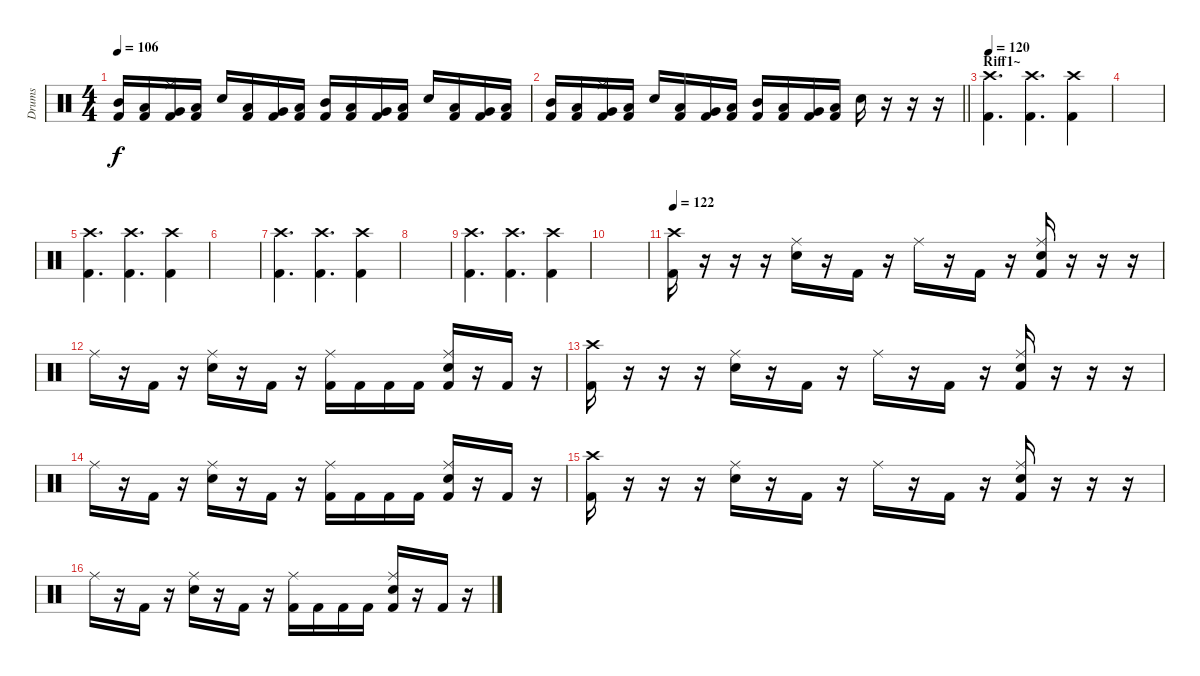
\track ("Drums" "Drums") {instrument percussion}
\staff {score}
\articulation defaults
\ts (4 4)
\tempo 106
\clef neutral
\ks c
("Mid Tom (hit)" "Kick (hit) 2").16{dy f} ("Low Tom (hit)" "Kick (hit) 2").16 ("Ride (middle)" "Very Low Tom (hit)" "Kick (hit) 2").16 ("Low Floor Tom (hit)" "Kick (hit) 2").16 "Snare (hit) 2".16 ("Low Floor Tom (hit)" "Kick (hit) 2").16 ("Very Low Tom (hit)" "Kick (hit) 2").16 ("Low Tom (hit)" "Kick (hit) 2").16 ("Mid Tom (hit)" "Kick (hit) 2").16 ("Low Tom (hit)" "Kick (hit) 2").16 ("Very Low Tom (hit)" "Kick (hit) 2").16 ("Low Floor Tom (hit)" "Kick (hit) 2").16 "Snare (hit) 2".16 ("Low Floor Tom (hit)" "Kick (hit) 2").16 ("Very Low Tom (hit)" "Kick (hit) 2").16 ("Low Tom (hit)" "Kick (hit) 2").16 |
\barLineRight lightlight
("Mid Tom (hit)" "Kick (hit) 2").16 ("Low Tom (hit)" "Kick (hit) 2").16 ("Ride (middle)" "Very Low Tom (hit)" "Kick (hit) 2").16 ("Low Floor Tom (hit)" "Kick (hit) 2").16 "Snare (hit) 2".16 ("Low Floor Tom (hit)" "Kick (hit) 2").16 ("Very Low Tom (hit)" "Kick (hit) 2").16 ("Low Tom (hit)" "Kick (hit) 2").16 ("Mid Tom (hit)" "Kick (hit) 2").16 ("Low Tom (hit)" "Kick (hit) 2").16 ("Very Low Tom (hit)" "Kick (hit) 2").16 ("Low Floor Tom (hit)" "Kick (hit) 2").16 "Snare (hit) 2".16 r.16 r.16 r.16 |
\section ("" "Riff1~")
\tempo 120
("Crash high (hit)" "Kick (hit) 2").4{d} ("Crash high (hit)" "Kick (hit) 2").4{d} ("Crash high (hit)" "Kick (hit) 2").4 |
|
("Crash high (hit)" "Kick (hit) 2").4{d} ("Crash high (hit)" "Kick (hit) 2").4{d} ("Crash high (hit)" "Kick (hit) 2").4 |
|
("Crash high (hit)" "Kick (hit) 2").4{d} ("Crash high (hit)" "Kick (hit) 2").4{d} ("Crash high (hit)" "Kick (hit) 2").4 |
|
("Crash high (hit)" "Kick (hit) 2").4{d} ("Crash high (hit)" "Kick (hit) 2").4{d} ("Crash high (hit)" "Kick (hit) 2").4 |
|
\tempo 122
("Crash high (hit)" "Kick (hit) 2").16 r.16 r.16 r.16 ("Ride (middle)" "Snare (hit) 2").16 r.16 "Kick (hit) 2".16 r.16 "Ride (middle)".16 r.16 "Kick (hit) 2".16 r.16 ("Ride (middle)" "Snare (hit) 2" "Kick (hit) 2").16 r.16 r.16 r.16 |
"Ride (middle)".16 r.16 "Kick (hit) 2".16 r.16 ("Ride (middle)" "Snare (hit) 2").16 r.16 "Kick (hit) 2".16 r.16 ("Ride (middle)" "Kick (hit) 2").16 "Kick (hit) 2".16 "Kick (hit) 2".16 "Kick (hit) 2".16 ("Ride (middle)" "Snare (hit) 2" "Kick (hit) 2").16 r.16 "Kick (hit) 2".16 r.16 |
("Crash high (hit)" "Kick (hit) 2").16 r.16 r.16 r.16 ("Ride (middle)" "Snare (hit) 2").16 r.16 "Kick (hit) 2".16 r.16 "Ride (middle)".16 r.16 "Kick (hit) 2".16 r.16 ("Ride (middle)" "Snare (hit) 2" "Kick (hit) 2").16 r.16 r.16 r.16 |
"Ride (middle)".16 r.16 "Kick (hit) 2".16 r.16 ("Ride (middle)" "Snare (hit) 2").16 r.16 "Kick (hit) 2".16 r.16 ("Ride (middle)" "Kick (hit) 2").16 "Kick (hit) 2".16 "Kick (hit) 2".16 "Kick (hit) 2".16 ("Ride (middle)" "Snare (hit) 2" "Kick (hit) 2").16 r.16 "Kick (hit) 2".16 r.16 |
("Crash high (hit)" "Kick (hit) 2").16 r.16 r.16 r.16 ("Ride (middle)" "Snare (hit) 2").16 r.16 "Kick (hit) 2".16 r.16 "Ride (middle)".16 r.16 "Kick (hit) 2".16 r.16 ("Ride (middle)" "Snare (hit) 2" "Kick (hit) 2").16 r.16 r.16 r.16 |
"Ride (middle)".16 r.16 "Kick (hit) 2".16 r.16 ("Ride (middle)" "Snare (hit) 2").16 r.16 "Kick (hit) 2".16 r.16 ("Ride (middle)" "Kick (hit) 2").16 "Kick (hit) 2".16 "Kick (hit) 2".16 "Kick (hit) 2".16 ("Ride (middle)" "Snare (hit) 2" "Kick (hit) 2").16 r.16 "Kick (hit) 2".16 r.16
